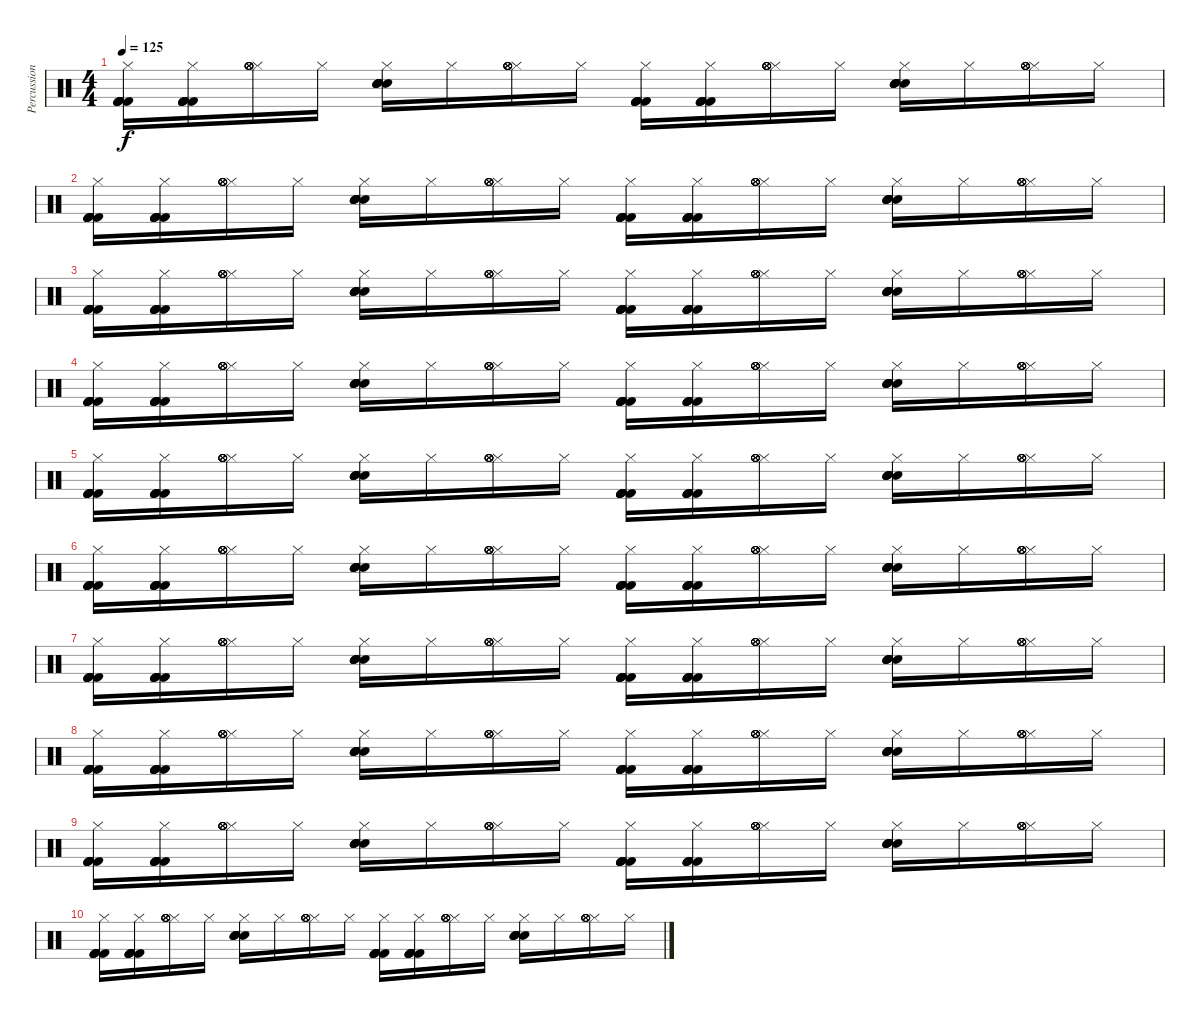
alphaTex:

\track ("Percussion" "Percussion") {instrument percussion}
\staff {score}
\articulation defaults
\ts (4 4)
\tempo 125
\clef neutral
\ks c
("Hi-Hat (closed)" "Kick (hit) 2" "Kick (hit) 2" "Kick (hit) 2" "Kick (hit) 2" "Kick (hit) 2").16{dy f} ("Hi-Hat (closed)" "Kick (hit) 2" "Kick (hit) 2" "Kick (hit) 2" "Kick (hit) 2" "Kick (hit) 2").16 ("Hi-Hat (closed)" "Hi-Hat (open)" "Hi-Hat (open)" "Hi-Hat (open)" "Hi-Hat (open)" "Hi-Hat (open)").16 "Hi-Hat (closed)".16 ("Hi-Hat (closed)" "Electric Snare (hit)" "Electric Snare (hit)" "Electric Snare (hit)" "Electric Snare (hit)" "Electric Snare (hit)").16 "Hi-Hat (closed)".16 ("Hi-Hat (closed)" "Hi-Hat (open)" "Hi-Hat (open)" "Hi-Hat (open)" "Hi-Hat (open)" "Hi-Hat (open)").16 "Hi-Hat (closed)".16 ("Hi-Hat (closed)" "Kick (hit) 2" "Kick (hit) 2" "Kick (hit) 2" "Kick (hit) 2" "Kick (hit) 2").16 ("Hi-Hat (closed)" "Kick (hit) 2" "Kick (hit) 2" "Kick (hit) 2" "Kick (hit) 2" "Kick (hit) 2").16 ("Hi-Hat (closed)" "Hi-Hat (open)" "Hi-Hat (open)" "Hi-Hat (open)" "Hi-Hat (open)" "Hi-Hat (open)").16 "Hi-Hat (closed)".16 ("Hi-Hat (closed)" "Electric Snare (hit)" "Electric Snare (hit)" "Electric Snare (hit)" "Electric Snare (hit)" "Electric Snare (hit)").16 "Hi-Hat (closed)".16 ("Hi-Hat (closed)" "Hi-Hat (open)" "Hi-Hat (open)" "Hi-Hat (open)" "Hi-Hat (open)" "Hi-Hat (open)").16 "Hi-Hat (closed)".16 |
("Hi-Hat (closed)" "Kick (hit) 2" "Kick (hit) 2" "Kick (hit) 2" "Kick (hit) 2" "Kick (hit) 2").16 ("Hi-Hat (closed)" "Kick (hit) 2" "Kick (hit) 2" "Kick (hit) 2" "Kick (hit) 2" "Kick (hit) 2").16 ("Hi-Hat (closed)" "Hi-Hat (open)" "Hi-Hat (open)" "Hi-Hat (open)" "Hi-Hat (open)" "Hi-Hat (open)").16 "Hi-Hat (closed)".16 ("Hi-Hat (closed)" "Electric Snare (hit)" "Electric Snare (hit)" "Electric Snare (hit)" "Electric Snare (hit)" "Electric Snare (hit)").16 "Hi-Hat (closed)".16 ("Hi-Hat (closed)" "Hi-Hat (open)" "Hi-Hat (open)" "Hi-Hat (open)" "Hi-Hat (open)" "Hi-Hat (open)").16 "Hi-Hat (closed)".16 ("Hi-Hat (closed)" "Kick (hit) 2" "Kick (hit) 2" "Kick (hit) 2" "Kick (hit) 2" "Kick (hit) 2").16 ("Hi-Hat (closed)" "Kick (hit) 2" "Kick (hit) 2" "Kick (hit) 2" "Kick (hit) 2" "Kick (hit) 2").16 ("Hi-Hat (closed)" "Hi-Hat (open)" "Hi-Hat (open)" "Hi-Hat (open)" "Hi-Hat (open)" "Hi-Hat (open)").16 "Hi-Hat (closed)".16 ("Hi-Hat (closed)" "Electric Snare (hit)" "Electric Snare (hit)" "Electric Snare (hit)" "Electric Snare (hit)" "Electric Snare (hit)").16 "Hi-Hat (closed)".16 ("Hi-Hat (closed)" "Hi-Hat (open)" "Hi-Hat (open)" "Hi-Hat (open)" "Hi-Hat (open)" "Hi-Hat (open)").16 "Hi-Hat (closed)".16 |
("Hi-Hat (closed)" "Kick (hit) 2" "Kick (hit) 2" "Kick (hit) 2" "Kick (hit) 2" "Kick (hit) 2").16 ("Hi-Hat (closed)" "Kick (hit) 2" "Kick (hit) 2" "Kick (hit) 2" "Kick (hit) 2" "Kick (hit) 2").16 ("Hi-Hat (closed)" "Hi-Hat (open)" "Hi-Hat (open)" "Hi-Hat (open)" "Hi-Hat (open)" "Hi-Hat (open)").16 "Hi-Hat (closed)".16 ("Hi-Hat (closed)" "Electric Snare (hit)" "Electric Snare (hit)" "Electric Snare (hit)" "Electric Snare (hit)" "Electric Snare (hit)").16 "Hi-Hat (closed)".16 ("Hi-Hat (closed)" "Hi-Hat (open)" "Hi-Hat (open)" "Hi-Hat (open)" "Hi-Hat (open)" "Hi-Hat (open)").16 "Hi-Hat (closed)".16 ("Hi-Hat (closed)" "Kick (hit) 2" "Kick (hit) 2" "Kick (hit) 2" "Kick (hit) 2" "Kick (hit) 2").16 ("Hi-Hat (closed)" "Kick (hit) 2" "Kick (hit) 2" "Kick (hit) 2" "Kick (hit) 2" "Kick (hit) 2").16 ("Hi-Hat (closed)" "Hi-Hat (open)" "Hi-Hat (open)" "Hi-Hat (open)" "Hi-Hat (open)" "Hi-Hat (open)").16 "Hi-Hat (closed)".16 ("Hi-Hat (closed)" "Electric Snare (hit)" "Electric Snare (hit)" "Electric Snare (hit)" "Electric Snare (hit)" "Electric Snare (hit)").16 "Hi-Hat (closed)".16 ("Hi-Hat (closed)" "Hi-Hat (open)" "Hi-Hat (open)" "Hi-Hat (open)" "Hi-Hat (open)" "Hi-Hat (open)").16 "Hi-Hat (closed)".16 |
("Hi-Hat (closed)" "Kick (hit) 2" "Kick (hit) 2" "Kick (hit) 2" "Kick (hit) 2" "Kick (hit) 2").16 ("Hi-Hat (closed)" "Kick (hit) 2" "Kick (hit) 2" "Kick (hit) 2" "Kick (hit) 2" "Kick (hit) 2").16 ("Hi-Hat (closed)" "Hi-Hat (open)" "Hi-Hat (open)" "Hi-Hat (open)" "Hi-Hat (open)" "Hi-Hat (open)").16 "Hi-Hat (closed)".16 ("Hi-Hat (closed)" "Electric Snare (hit)" "Electric Snare (hit)" "Electric Snare (hit)" "Electric Snare (hit)" "Electric Snare (hit)").16 "Hi-Hat (closed)".16 ("Hi-Hat (closed)" "Hi-Hat (open)" "Hi-Hat (open)" "Hi-Hat (open)" "Hi-Hat (open)" "Hi-Hat (open)").16 "Hi-Hat (closed)".16 ("Hi-Hat (closed)" "Kick (hit) 2" "Kick (hit) 2" "Kick (hit) 2" "Kick (hit) 2" "Kick (hit) 2").16 ("Hi-Hat (closed)" "Kick (hit) 2" "Kick (hit) 2" "Kick (hit) 2" "Kick (hit) 2" "Kick (hit) 2").16 ("Hi-Hat (closed)" "Hi-Hat (open)" "Hi-Hat (open)" "Hi-Hat (open)" "Hi-Hat (open)" "Hi-Hat (open)").16 "Hi-Hat (closed)".16 ("Hi-Hat (closed)" "Electric Snare (hit)" "Electric Snare (hit)" "Electric Snare (hit)" "Electric Snare (hit)" "Electric Snare (hit)").16 "Hi-Hat (closed)".16 ("Hi-Hat (closed)" "Hi-Hat (open)" "Hi-Hat (open)" "Hi-Hat (open)" "Hi-Hat (open)" "Hi-Hat (open)").16 "Hi-Hat (closed)".16 |
("Hi-Hat (closed)" "Kick (hit) 2" "Kick (hit) 2" "Kick (hit) 2" "Kick (hit) 2" "Kick (hit) 2").16 ("Hi-Hat (closed)" "Kick (hit) 2" "Kick (hit) 2" "Kick (hit) 2" "Kick (hit) 2" "Kick (hit) 2").16 ("Hi-Hat (closed)" "Hi-Hat (open)" "Hi-Hat (open)" "Hi-Hat (open)" "Hi-Hat (open)" "Hi-Hat (open)").16 "Hi-Hat (closed)".16 ("Hi-Hat (closed)" "Electric Snare (hit)" "Electric Snare (hit)" "Electric Snare (hit)" "Electric Snare (hit)" "Electric Snare (hit)").16 "Hi-Hat (closed)".16 ("Hi-Hat (closed)" "Hi-Hat (open)" "Hi-Hat (open)" "Hi-Hat (open)" "Hi-Hat (open)" "Hi-Hat (open)").16 "Hi-Hat (closed)".16 ("Hi-Hat (closed)" "Kick (hit) 2" "Kick (hit) 2" "Kick (hit) 2" "Kick (hit) 2" "Kick (hit) 2").16 ("Hi-Hat (closed)" "Kick (hit) 2" "Kick (hit) 2" "Kick (hit) 2" "Kick (hit) 2" "Kick (hit) 2").16 ("Hi-Hat (closed)" "Hi-Hat (open)" "Hi-Hat (open)" "Hi-Hat (open)" "Hi-Hat (open)" "Hi-Hat (open)").16 "Hi-Hat (closed)".16 ("Hi-Hat (closed)" "Electric Snare (hit)" "Electric Snare (hit)" "Electric Snare (hit)" "Electric Snare (hit)" "Electric Snare (hit)").16 "Hi-Hat (closed)".16 ("Hi-Hat (closed)" "Hi-Hat (open)" "Hi-Hat (open)" "Hi-Hat (open)" "Hi-Hat (open)" "Hi-Hat (open)").16 "Hi-Hat (closed)".16 |
("Hi-Hat (closed)" "Kick (hit) 2" "Kick (hit) 2" "Kick (hit) 2" "Kick (hit) 2" "Kick (hit) 2").16 ("Hi-Hat (closed)" "Kick (hit) 2" "Kick (hit) 2" "Kick (hit) 2" "Kick (hit) 2" "Kick (hit) 2").16 ("Hi-Hat (closed)" "Hi-Hat (open)" "Hi-Hat (open)" "Hi-Hat (open)" "Hi-Hat (open)" "Hi-Hat (open)").16 "Hi-Hat (closed)".16 ("Hi-Hat (closed)" "Electric Snare (hit)" "Electric Snare (hit)" "Electric Snare (hit)" "Electric Snare (hit)" "Electric Snare (hit)").16 "Hi-Hat (closed)".16 ("Hi-Hat (closed)" "Hi-Hat (open)" "Hi-Hat (open)" "Hi-Hat (open)" "Hi-Hat (open)" "Hi-Hat (open)").16 "Hi-Hat (closed)".16 ("Hi-Hat (closed)" "Kick (hit) 2" "Kick (hit) 2" "Kick (hit) 2" "Kick (hit) 2" "Kick (hit) 2").16 ("Hi-Hat (closed)" "Kick (hit) 2" "Kick (hit) 2" "Kick (hit) 2" "Kick (hit) 2" "Kick (hit) 2").16 ("Hi-Hat (closed)" "Hi-Hat (open)" "Hi-Hat (open)" "Hi-Hat (open)" "Hi-Hat (open)" "Hi-Hat (open)").16 "Hi-Hat (closed)".16 ("Hi-Hat (closed)" "Electric Snare (hit)" "Electric Snare (hit)" "Electric Snare (hit)" "Electric Snare (hit)" "Electric Snare (hit)").16 "Hi-Hat (closed)".16 ("Hi-Hat (closed)" "Hi-Hat (open)" "Hi-Hat (open)" "Hi-Hat (open)" "Hi-Hat (open)" "Hi-Hat (open)").16 "Hi-Hat (closed)".16 |
("Hi-Hat (closed)" "Kick (hit) 2" "Kick (hit) 2" "Kick (hit) 2" "Kick (hit) 2" "Kick (hit) 2").16 ("Hi-Hat (closed)" "Kick (hit) 2" "Kick (hit) 2" "Kick (hit) 2" "Kick (hit) 2" "Kick (hit) 2").16 ("Hi-Hat (closed)" "Hi-Hat (open)" "Hi-Hat (open)" "Hi-Hat (open)" "Hi-Hat (open)" "Hi-Hat (open)").16 "Hi-Hat (closed)".16 ("Hi-Hat (closed)" "Electric Snare (hit)" "Electric Snare (hit)" "Electric Snare (hit)" "Electric Snare (hit)" "Electric Snare (hit)").16 "Hi-Hat (closed)".16 ("Hi-Hat (closed)" "Hi-Hat (open)" "Hi-Hat (open)" "Hi-Hat (open)" "Hi-Hat (open)" "Hi-Hat (open)").16 "Hi-Hat (closed)".16 ("Hi-Hat (closed)" "Kick (hit) 2" "Kick (hit) 2" "Kick (hit) 2" "Kick (hit) 2" "Kick (hit) 2").16 ("Hi-Hat (closed)" "Kick (hit) 2" "Kick (hit) 2" "Kick (hit) 2" "Kick (hit) 2" "Kick (hit) 2").16 ("Hi-Hat (closed)" "Hi-Hat (open)" "Hi-Hat (open)" "Hi-Hat (open)" "Hi-Hat (open)" "Hi-Hat (open)").16 "Hi-Hat (closed)".16 ("Hi-Hat (closed)" "Electric Snare (hit)" "Electric Snare (hit)" "Electric Snare (hit)" "Electric Snare (hit)" "Electric Snare (hit)").16 "Hi-Hat (closed)".16 ("Hi-Hat (closed)" "Hi-Hat (open)" "Hi-Hat (open)" "Hi-Hat (open)" "Hi-Hat (open)" "Hi-Hat (open)").16 "Hi-Hat (closed)".16 |
("Hi-Hat (closed)" "Kick (hit) 2" "Kick (hit) 2" "Kick (hit) 2" "Kick (hit) 2" "Kick (hit) 2").16 ("Hi-Hat (closed)" "Kick (hit) 2" "Kick (hit) 2" "Kick (hit) 2" "Kick (hit) 2" "Kick (hit) 2").16 ("Hi-Hat (closed)" "Hi-Hat (open)" "Hi-Hat (open)" "Hi-Hat (open)" "Hi-Hat (open)" "Hi-Hat (open)").16 "Hi-Hat (closed)".16 ("Hi-Hat (closed)" "Electric Snare (hit)" "Electric Snare (hit)" "Electric Snare (hit)" "Electric Snare (hit)" "Electric Snare (hit)").16 "Hi-Hat (closed)".16 ("Hi-Hat (closed)" "Hi-Hat (open)" "Hi-Hat (open)" "Hi-Hat (open)" "Hi-Hat (open)" "Hi-Hat (open)").16 "Hi-Hat (closed)".16 ("Hi-Hat (closed)" "Kick (hit) 2" "Kick (hit) 2" "Kick (hit) 2" "Kick (hit) 2" "Kick (hit) 2").16 ("Hi-Hat (closed)" "Kick (hit) 2" "Kick (hit) 2" "Kick (hit) 2" "Kick (hit) 2" "Kick (hit) 2").16 ("Hi-Hat (closed)" "Hi-Hat (open)" "Hi-Hat (open)" "Hi-Hat (open)" "Hi-Hat (open)" "Hi-Hat (open)").16 "Hi-Hat (closed)".16 ("Hi-Hat (closed)" "Electric Snare (hit)" "Electric Snare (hit)" "Electric Snare (hit)" "Electric Snare (hit)" "Electric Snare (hit)").16 "Hi-Hat (closed)".16 ("Hi-Hat (closed)" "Hi-Hat (open)" "Hi-Hat (open)" "Hi-Hat (open)" "Hi-Hat (open)" "Hi-Hat (open)").16 "Hi-Hat (closed)".16 |
("Hi-Hat (closed)" "Kick (hit) 2" "Kick (hit) 2" "Kick (hit) 2" "Kick (hit) 2" "Kick (hit) 2").16 ("Hi-Hat (closed)" "Kick (hit) 2" "Kick (hit) 2" "Kick (hit) 2" "Kick (hit) 2" "Kick (hit) 2").16 ("Hi-Hat (closed)" "Hi-Hat (open)" "Hi-Hat (open)" "Hi-Hat (open)" "Hi-Hat (open)" "Hi-Hat (open)").16 "Hi-Hat (closed)".16 ("Hi-Hat (closed)" "Electric Snare (hit)" "Electric Snare (hit)" "Electric Snare (hit)" "Electric Snare (hit)" "Electric Snare (hit)").16 "Hi-Hat (closed)".16 ("Hi-Hat (closed)" "Hi-Hat (open)" "Hi-Hat (open)" "Hi-Hat (open)" "Hi-Hat (open)" "Hi-Hat (open)").16 "Hi-Hat (closed)".16 ("Hi-Hat (closed)" "Kick (hit) 2" "Kick (hit) 2" "Kick (hit) 2" "Kick (hit) 2" "Kick (hit) 2").16 ("Hi-Hat (closed)" "Kick (hit) 2" "Kick (hit) 2" "Kick (hit) 2" "Kick (hit) 2" "Kick (hit) 2").16 ("Hi-Hat (closed)" "Hi-Hat (open)" "Hi-Hat (open)" "Hi-Hat (open)" "Hi-Hat (open)" "Hi-Hat (open)").16 "Hi-Hat (closed)".16 ("Hi-Hat (closed)" "Electric Snare (hit)" "Electric Snare (hit)" "Electric Snare (hit)" "Electric Snare (hit)" "Electric Snare (hit)").16 "Hi-Hat (closed)".16 ("Hi-Hat (closed)" "Hi-Hat (open)" "Hi-Hat (open)" "Hi-Hat (open)" "Hi-Hat (open)" "Hi-Hat (open)").16 "Hi-Hat (closed)".16 |
("Hi-Hat (closed)" "Kick (hit) 2" "Kick (hit) 2" "Kick (hit) 2" "Kick (hit) 2" "Kick (hit) 2").16 ("Hi-Hat (closed)" "Kick (hit) 2" "Kick (hit) 2" "Kick (hit) 2" "Kick (hit) 2" "Kick (hit) 2").16 ("Hi-Hat (closed)" "Hi-Hat (open)" "Hi-Hat (open)" "Hi-Hat (open)" "Hi-Hat (open)" "Hi-Hat (open)").16 "Hi-Hat (closed)".16 ("Hi-Hat (closed)" "Electric Snare (hit)" "Electric Snare (hit)" "Electric Snare (hit)" "Electric Snare (hit)" "Electric Snare (hit)").16 "Hi-Hat (closed)".16 ("Hi-Hat (closed)" "Hi-Hat (open)" "Hi-Hat (open)" "Hi-Hat (open)" "Hi-Hat (open)" "Hi-Hat (open)").16 "Hi-Hat (closed)".16 ("Hi-Hat (closed)" "Kick (hit) 2" "Kick (hit) 2" "Kick (hit) 2" "Kick (hit) 2" "Kick (hit) 2").16 ("Hi-Hat (closed)" "Kick (hit) 2" "Kick (hit) 2" "Kick (hit) 2" "Kick (hit) 2" "Kick (hit) 2").16 ("Hi-Hat (closed)" "Hi-Hat (open)" "Hi-Hat (open)" "Hi-Hat (open)" "Hi-Hat (open)" "Hi-Hat (open)").16 "Hi-Hat (closed)".16 ("Hi-Hat (closed)" "Electric Snare (hit)" "Electric Snare (hit)" "Electric Snare (hit)" "Electric Snare (hit)" "Electric Snare (hit)").16 "Hi-Hat (closed)".16 ("Hi-Hat (closed)" "Hi-Hat (open)" "Hi-Hat (open)" "Hi-Hat (open)" "Hi-Hat (open)" "Hi-Hat (open)").16 "Hi-Hat (closed)".16
